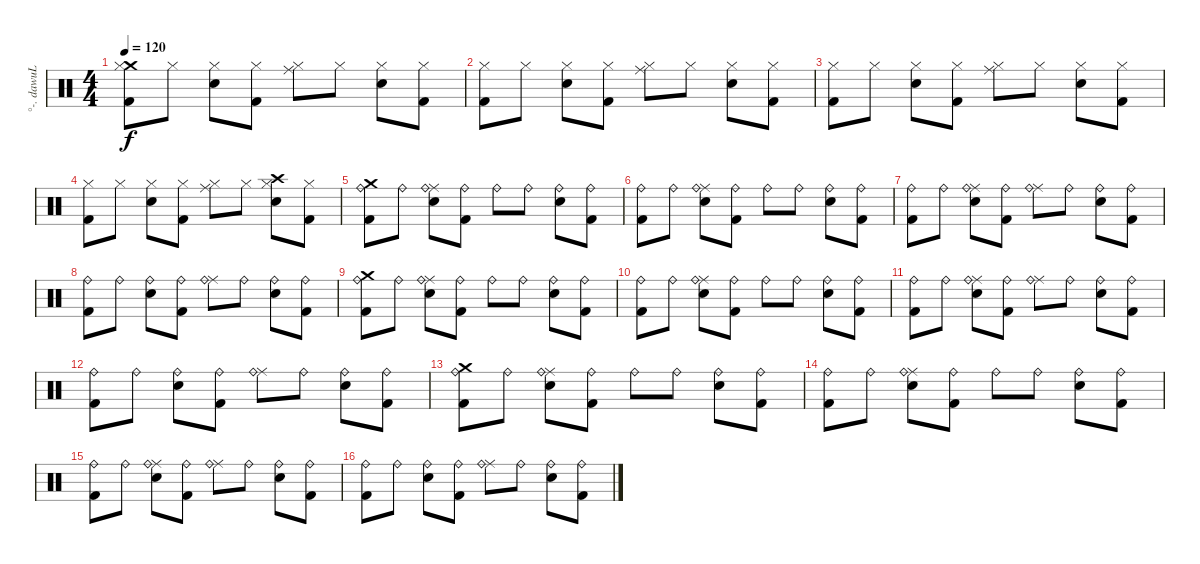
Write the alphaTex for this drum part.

\track ("°-. dawuL .-°" "°-. dawuL ") {instrument percussion}
\staff {score}
\articulation defaults
\ts (4 4)
\tempo 120
\clef neutral
\ks c
("Crash medium (hit)" "Kick (hit) 2" "Hi-Hat (closed)").8{dy f} "Hi-Hat (closed)".8 ("Electric Snare (hit)" "Hi-Hat (closed)").8 ("Kick (hit) 2" "Hi-Hat (closed)").8 ("Ride (middle)" "Hi-Hat (closed)").8 "Hi-Hat (closed)".8 ("Electric Snare (hit)" "Hi-Hat (closed)").8 ("Kick (hit) 2" "Hi-Hat (closed)").8 |
("Kick (hit) 2" "Hi-Hat (closed)").8 "Hi-Hat (closed)".8 ("Electric Snare (hit)" "Hi-Hat (closed)").8 ("Kick (hit) 2" "Hi-Hat (closed)").8 ("Ride (middle)" "Hi-Hat (closed)").8 "Hi-Hat (closed)".8 ("Electric Snare (hit)" "Hi-Hat (closed)").8 ("Kick (hit) 2" "Hi-Hat (closed)").8 |
("Kick (hit) 2" "Hi-Hat (closed)").8 "Hi-Hat (closed)".8 ("Electric Snare (hit)" "Hi-Hat (closed)").8 ("Kick (hit) 2" "Hi-Hat (closed)").8 ("Ride (middle)" "Hi-Hat (closed)").8 "Hi-Hat (closed)".8 ("Electric Snare (hit)" "Hi-Hat (closed)").8 ("Kick (hit) 2" "Hi-Hat (closed)").8 |
("Kick (hit) 2" "Hi-Hat (closed)").8 "Hi-Hat (closed)".8 ("Electric Snare (hit)" "Hi-Hat (closed)").8 ("Kick (hit) 2" "Hi-Hat (closed)").8 ("Ride (middle)" "Hi-Hat (closed)").8 "Hi-Hat (closed)".8 ("Crash high (hit)" "Electric Snare (hit)" "Hi-Hat (closed)").8 ("Kick (hit) 2" "Hi-Hat (closed)").8 |
("Crash medium (hit)" "Kick (hit) 2" "Ride (bell)").8 "Ride (bell)".8 ("Ride (middle)" "Electric Snare (hit)" "Ride (bell)").8 ("Kick (hit) 2" "Ride (bell)").8 "Ride (bell)".8 "Ride (bell)".8 ("Electric Snare (hit)" "Ride (bell)").8 ("Kick (hit) 2" "Ride (bell)").8 |
("Kick (hit) 2" "Ride (bell)").8 "Ride (bell)".8 ("Ride (middle)" "Electric Snare (hit)" "Ride (bell)").8 ("Kick (hit) 2" "Ride (bell)").8 "Ride (bell)".8 "Ride (bell)".8 ("Electric Snare (hit)" "Ride (bell)").8 ("Kick (hit) 2" "Ride (bell)").8 |
("Kick (hit) 2" "Ride (bell)").8 "Ride (bell)".8 ("Ride (middle)" "Electric Snare (hit)" "Ride (bell)").8 ("Kick (hit) 2" "Ride (bell)").8 ("Ride (middle)" "Ride (bell)").8 "Ride (bell)".8 ("Electric Snare (hit)" "Ride (bell)").8 ("Kick (hit) 2" "Ride (bell)").8 |
("Kick (hit) 2" "Ride (bell)").8 "Ride (bell)".8 ("Electric Snare (hit)" "Ride (bell)").8 ("Kick (hit) 2" "Ride (bell)").8 ("Ride (middle)" "Ride (bell)").8 "Ride (bell)".8 ("Electric Snare (hit)" "Ride (bell)").8 ("Kick (hit) 2" "Ride (bell)").8 |
("Crash medium (hit)" "Kick (hit) 2" "Ride (bell)").8 "Ride (bell)".8 ("Ride (middle)" "Electric Snare (hit)" "Ride (bell)").8 ("Kick (hit) 2" "Ride (bell)").8 "Ride (bell)".8 "Ride (bell)".8 ("Electric Snare (hit)" "Ride (bell)").8 ("Kick (hit) 2" "Ride (bell)").8 |
("Kick (hit) 2" "Ride (bell)").8 "Ride (bell)".8 ("Ride (middle)" "Electric Snare (hit)" "Ride (bell)").8 ("Kick (hit) 2" "Ride (bell)").8 "Ride (bell)".8 "Ride (bell)".8 ("Electric Snare (hit)" "Ride (bell)").8 ("Kick (hit) 2" "Ride (bell)").8 |
("Kick (hit) 2" "Ride (bell)").8 "Ride (bell)".8 ("Ride (middle)" "Electric Snare (hit)" "Ride (bell)").8 ("Kick (hit) 2" "Ride (bell)").8 ("Ride (middle)" "Ride (bell)").8 "Ride (bell)".8 ("Electric Snare (hit)" "Ride (bell)").8 ("Kick (hit) 2" "Ride (bell)").8 |
("Kick (hit) 2" "Ride (bell)").8 "Ride (bell)".8 ("Electric Snare (hit)" "Ride (bell)").8 ("Kick (hit) 2" "Ride (bell)").8 ("Ride (middle)" "Ride (bell)").8 "Ride (bell)".8 ("Electric Snare (hit)" "Ride (bell)").8 ("Kick (hit) 2" "Ride (bell)").8 |
("Crash medium (hit)" "Kick (hit) 2" "Ride (bell)").8 "Ride (bell)".8 ("Ride (middle)" "Electric Snare (hit)" "Ride (bell)").8 ("Kick (hit) 2" "Ride (bell)").8 "Ride (bell)".8 "Ride (bell)".8 ("Electric Snare (hit)" "Ride (bell)").8 ("Kick (hit) 2" "Ride (bell)").8 |
("Kick (hit) 2" "Ride (bell)").8 "Ride (bell)".8 ("Ride (middle)" "Electric Snare (hit)" "Ride (bell)").8 ("Kick (hit) 2" "Ride (bell)").8 "Ride (bell)".8 "Ride (bell)".8 ("Electric Snare (hit)" "Ride (bell)").8 ("Kick (hit) 2" "Ride (bell)").8 |
("Kick (hit) 2" "Ride (bell)").8 "Ride (bell)".8 ("Ride (middle)" "Electric Snare (hit)" "Ride (bell)").8 ("Kick (hit) 2" "Ride (bell)").8 ("Ride (middle)" "Ride (bell)").8 "Ride (bell)".8 ("Electric Snare (hit)" "Ride (bell)").8 ("Kick (hit) 2" "Ride (bell)").8 |
("Kick (hit) 2" "Ride (bell)").8 "Ride (bell)".8 ("Electric Snare (hit)" "Ride (bell)").8 ("Kick (hit) 2" "Ride (bell)").8 ("Ride (middle)" "Ride (bell)").8 "Ride (bell)".8 ("Electric Snare (hit)" "Ride (bell)").8 ("Kick (hit) 2" "Ride (bell)").8
